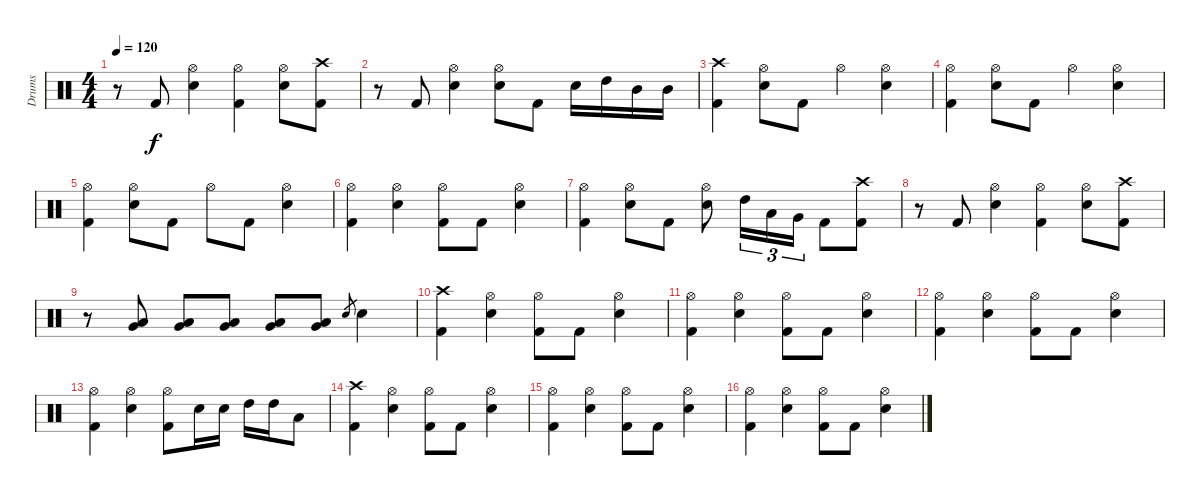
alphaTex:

\track ("Drums" "Drums") {instrument percussion}
\staff {score}
\articulation defaults
\ts (4 4)
\tempo 120
\clef neutral
\ks c
r.8{dy f} "Kick (hit) 2".8 ("Hi-Hat (open)" "Electric Snare (hit)").4 ("Hi-Hat (open)" "Kick (hit) 2").4 ("Hi-Hat (open)" "Electric Snare (hit)").8 ("Crash high (hit)" "Kick (hit) 2").8 |
r.8 "Kick (hit) 2".8 ("Hi-Hat (open)" "Electric Snare (hit)").4 ("Hi-Hat (open)" "Electric Snare (hit)").8 "Kick (hit) 2".8 "Electric Snare (hit)".16 "High Tom (hit)".16 "Mid Tom (hit)".16 "Mid Tom (hit)".16 |
("Crash high (hit)" "Kick (hit) 2").4 ("Hi-Hat (open)" "Electric Snare (hit)").8 "Kick (hit) 2".8 "Hi-Hat (open)".4 ("Hi-Hat (open)" "Electric Snare (hit)").4 |
("Hi-Hat (open)" "Kick (hit) 2").4 ("Hi-Hat (open)" "Electric Snare (hit)").8 "Kick (hit) 2".8 "Hi-Hat (open)".4 ("Hi-Hat (open)" "Electric Snare (hit)").4 |
("Hi-Hat (open)" "Kick (hit) 2").4 ("Hi-Hat (open)" "Electric Snare (hit)").8 "Kick (hit) 2".8 "Hi-Hat (open)".8 "Kick (hit) 2".8 ("Hi-Hat (open)" "Electric Snare (hit)").4 |
("Hi-Hat (open)" "Kick (hit) 2").4 ("Hi-Hat (open)" "Electric Snare (hit)").4 ("Hi-Hat (open)" "Kick (hit) 2").8 "Kick (hit) 2".8 ("Hi-Hat (open)" "Electric Snare (hit)").4 |
("Hi-Hat (open)" "Kick (hit) 2").4 ("Hi-Hat (open)" "Electric Snare (hit)").8 "Kick (hit) 2".8 ("Hi-Hat (open)" "Electric Snare (hit)").8 "High Tom (hit)".16{tu (3 2)} "Low Tom (hit)".16{tu (3 2)} "Very Low Tom (hit)".16{tu (3 2)} "Kick (hit) 2".8 ("Crash high (hit)" "Kick (hit) 2").8 |
r.8 "Kick (hit) 2".8 ("Hi-Hat (open)" "Electric Snare (hit)").4 ("Hi-Hat (open)" "Kick (hit) 2").4 ("Hi-Hat (open)" "Electric Snare (hit)").8 ("Crash high (hit)" "Kick (hit) 2").8 |
r.8 ("Low Tom (hit)" "Very Low Tom (hit)").8 ("Low Tom (hit)" "Very Low Tom (hit)").8 ("Low Tom (hit)" "Very Low Tom (hit)").8 ("Low Tom (hit)" "Very Low Tom (hit)").8 ("Low Tom (hit)" "Very Low Tom (hit)").8 "Electric Snare (hit)".8{gr} "Electric Snare (hit)".4 |
("Crash high (hit)" "Kick (hit) 2").4 ("Hi-Hat (open)" "Electric Snare (hit)").4 ("Hi-Hat (open)" "Kick (hit) 2").8 "Kick (hit) 2".8 ("Hi-Hat (open)" "Electric Snare (hit)").4 |
("Hi-Hat (open)" "Kick (hit) 2").4 ("Hi-Hat (open)" "Electric Snare (hit)").4 ("Hi-Hat (open)" "Kick (hit) 2").8 "Kick (hit) 2".8 ("Hi-Hat (open)" "Electric Snare (hit)").4 |
("Hi-Hat (open)" "Kick (hit) 2").4 ("Hi-Hat (open)" "Electric Snare (hit)").4 ("Hi-Hat (open)" "Kick (hit) 2").8 "Kick (hit) 2".8 ("Hi-Hat (open)" "Electric Snare (hit)").4 |
("Hi-Hat (open)" "Kick (hit) 2").4 ("Hi-Hat (open)" "Electric Snare (hit)").4 ("Hi-Hat (open)" "Kick (hit) 2").8 "Electric Snare (hit)".16 "Electric Snare (hit)".16 "High Tom (hit)".16 "High Tom (hit)".16 "Low Tom (hit)".8 |
("Crash high (hit)" "Kick (hit) 2").4 ("Hi-Hat (open)" "Electric Snare (hit)").4 ("Hi-Hat (open)" "Kick (hit) 2").8 "Kick (hit) 2".8 ("Hi-Hat (open)" "Electric Snare (hit)").4 |
("Hi-Hat (open)" "Kick (hit) 2").4 ("Hi-Hat (open)" "Electric Snare (hit)").4 ("Hi-Hat (open)" "Kick (hit) 2").8 "Kick (hit) 2".8 ("Hi-Hat (open)" "Electric Snare (hit)").4 |
("Hi-Hat (open)" "Kick (hit) 2").4 ("Hi-Hat (open)" "Electric Snare (hit)").4 ("Hi-Hat (open)" "Kick (hit) 2").8 "Kick (hit) 2".8 ("Hi-Hat (open)" "Electric Snare (hit)").4
